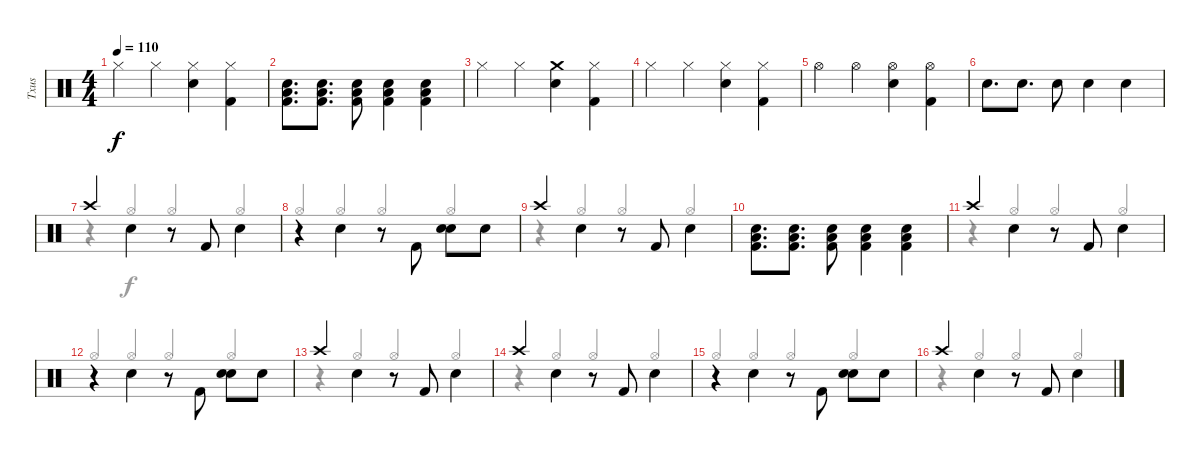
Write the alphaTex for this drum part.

\track ("Txus" "Txus") {instrument percussion}
\staff {score}
\articulation defaults
\voice
\ts (4 4)
\tempo 110
\clef neutral
\ks c "Hi-Hat (closed)".4{dy f} "Hi-Hat (closed)".4
("Hi-Hat (closed)" "Snare (hit) 2").4 ("Hi-Hat (closed)" "Kick (hit) 2").4 |
("Low Floor Tom (hit)" "Snare (hit) 2" "Kick (hit) 2").8{d} ("Low Floor Tom (hit)" "Snare (hit) 2" "Kick (hit) 2").8{d} ("Low Floor Tom (hit)" "Snare (hit) 2" "Kick (hit) 2").8 ("Low Floor Tom (hit)" "Snare (hit) 2" "Kick (hit) 2").4 ("Low Floor Tom (hit)" "Snare (hit) 2" "Kick (hit) 2").4 |
"Hi-Hat (closed)".4 "Hi-Hat (closed)".4 ("Crash medium (hit)" "Snare (hit) 2").4 ("Hi-Hat (closed)" "Kick (hit) 2").4 |
"Hi-Hat (closed)".4 "Hi-Hat (closed)".4 ("Hi-Hat (closed)" "Snare (hit) 2").4 ("Hi-Hat (closed)" "Kick (hit) 2").4 |
"Hi-Hat (open)".4 "Hi-Hat (open)".4 ("Hi-Hat (open)" "Snare (hit) 2").4 ("Hi-Hat (open)" "Kick (hit) 2").4 |
"Snare (hit) 2".8{d} "Snare (hit) 2".8{d} "Snare (hit) 2".8 "Snare (hit) 2".4 "Snare (hit) 2".4 |
"Crash high (hit)".4 "Snare (hit) 2".4{beam Down} r.8 "Kick (hit) 2".8 "Snare (hit) 2".4{beam Down} |
r.4 "Snare (hit) 2".4{beam Down} r.8 "Kick (hit) 2".8{beam Down} ("Snare (hit) 2" "Snare (hit) 2").8{beam Down} "Snare (hit) 2".8 |
"Crash high (hit)".4 "Snare (hit) 2".4{beam Down} r.8 "Kick (hit) 2".8 "Snare (hit) 2".4{beam Down} |
("Snare (hit) 2" "Low Floor Tom (hit)" "Kick (hit) 2").8{d} ("Snare (hit) 2" "Low Floor Tom (hit)" "Kick (hit) 2").8{d} ("Snare (hit) 2" "Low Floor Tom (hit)" "Kick (hit) 2").8 ("Snare (hit) 2" "Low Floor Tom (hit)" "Kick (hit) 2").4 ("Snare (hit) 2" "Low Floor Tom (hit)" "Kick (hit) 2").4 |
"Crash high (hit)".4 "Snare (hit) 2".4{beam Down} r.8 "Kick (hit) 2".8 "Snare (hit) 2".4{beam Down} |
r.4 "Snare (hit) 2".4{beam Down} r.8 "Kick (hit) 2".8{beam Down} ("Snare (hit) 2" "Snare (hit) 2").8{beam Down} "Snare (hit) 2".8 |
"Crash high (hit)".4 "Snare (hit) 2".4{beam Down} r.8 "Kick (hit) 2".8 "Snare (hit) 2".4{beam Down} |
"Crash high (hit)".4 "Snare (hit) 2".4{beam Down} r.8 "Kick (hit) 2".8 "Snare (hit) 2".4{beam Down} |
r.4 "Snare (hit) 2".4{beam Down} r.8 "Kick (hit) 2".8{beam Down} ("Snare (hit) 2" "Snare (hit) 2").8{beam Down} "Snare (hit) 2".8 |
"Crash high (hit)".4 "Snare (hit) 2".4{beam Down} r.8 "Kick (hit) 2".8 "Snare (hit) 2".4{beam Down}
\voice
\clef neutral
\ottava regular
\simile none
\ks c
|
|
|
|
|
|
r.4{beam Up} "Hi-Hat (open)".4{beam Up} "Hi-Hat (open)".4{beam Up} "Hi-Hat (open)".4{beam Up} |
"Hi-Hat (open)".4{beam Up} "Hi-Hat (open)".4{beam Up} "Hi-Hat (open)".4{beam Up} "Hi-Hat (open)".4{beam Up} |
r.4{beam Up} "Hi-Hat (open)".4{beam Up} "Hi-Hat (open)".4{beam Up} "Hi-Hat (open)".4{beam Up} |
|
r.4{beam Up} "Hi-Hat (open)".4{beam Up} "Hi-Hat (open)".4{beam Up} "Hi-Hat (open)".4{beam Up} |
"Hi-Hat (open)".4{beam Up} "Hi-Hat (open)".4{beam Up} "Hi-Hat (open)".4{beam Up} "Hi-Hat (open)".4{beam Up} |
r.4{beam Up} "Hi-Hat (open)".4{beam Up} "Hi-Hat (open)".4{beam Up} "Hi-Hat (open)".4{beam Up} |
r.4{beam Up} "Hi-Hat (open)".4{beam Up} "Hi-Hat (open)".4{beam Up} "Hi-Hat (open)".4{beam Up} |
"Hi-Hat (open)".4{beam Up} "Hi-Hat (open)".4{beam Up} "Hi-Hat (open)".4{beam Up} "Hi-Hat (open)".4{beam Up} |
r.4{beam Up} "Hi-Hat (open)".4{beam Up} "Hi-Hat (open)".4{beam Up} "Hi-Hat (open)".4{beam Up}
